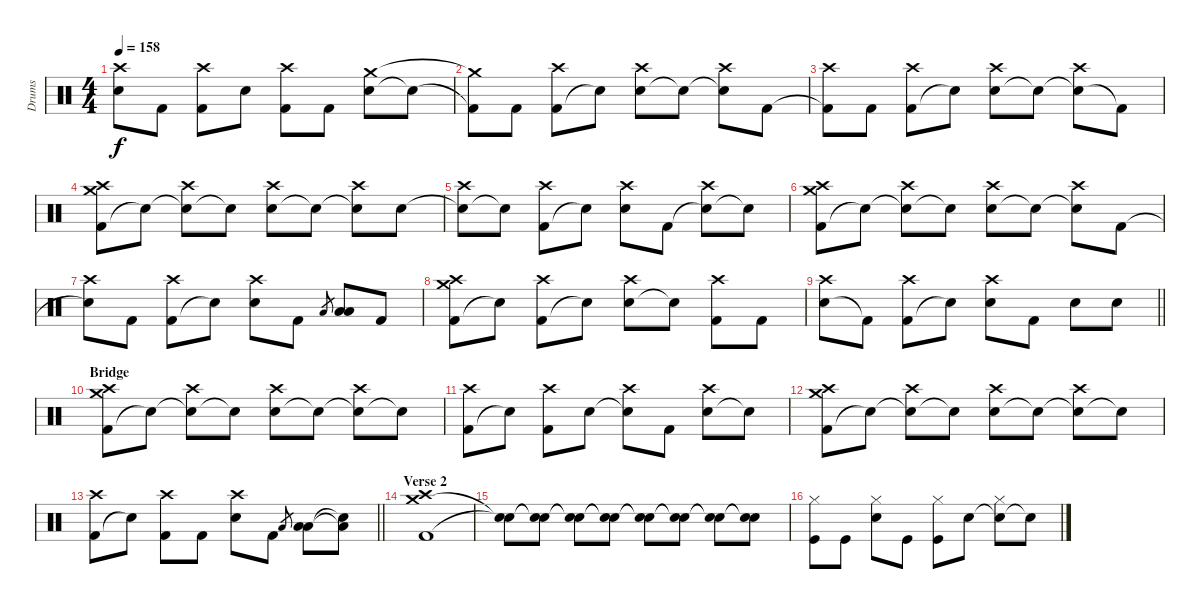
\track ("Drums" "Drums") {instrument percussion}
\staff {score}
\articulation defaults
\ts (4 4)
\tempo 158
\clef neutral
\ks c
("Electric Snare (hit)" "Crash high (hit)").8{dy f} "Kick (hit) 2".8 ("Kick (hit) 2" "Crash high (hit)").8 "Electric Snare (hit)".8 ("Kick (hit) 2" "Crash high (hit)").8 "Kick (hit) 2".8 ("Electric Snare (hit)" "Crash medium (hit)").8 "Snare (hit)"{t}.8 |
("Kick (hit) 2"{t} "Crash medium (hit)"{t}).8 "Kick (hit) 2".8 ("Kick (hit) 2" "Crash high (hit)").8 "Snare (hit)"{t}.8 ("Electric Snare (hit)" "Crash high (hit)").8 "Snare (hit)"{t}.8 ("Snare (hit)"{t} "Crash high (hit)").8 "Kick (hit) 2".8 |
("Kick (hit) 2"{t} "Crash high (hit)").8 "Kick (hit) 2".8 ("Kick (hit) 2" "Crash high (hit)").8 "Snare (hit)"{t}.8 ("Electric Snare (hit)" "Crash high (hit)").8 "Snare (hit)"{t}.8 ("Snare (hit)"{t} "Crash high (hit)").8 "Kick (hit) 2"{t}.8 |
("Kick (hit) 2" "Crash medium (hit)" "Crash high (hit)").8 "Snare (hit)"{t}.8 ("Snare (hit)"{t} "Crash high (hit)").8 "Snare (hit)"{t}.8 ("Electric Snare (hit)" "Crash high (hit)").8 "Snare (hit)"{t}.8 ("Snare (hit)"{t} "Crash high (hit)").8 "Electric Snare (hit)".8 |
("Snare (hit)"{t} "Crash high (hit)").8 "Snare (hit)"{t}.8 ("Kick (hit) 2" "Crash high (hit)").8 "Snare (hit)"{t}.8 ("Electric Snare (hit)" "Crash high (hit)").8 "Kick (hit) 2".8 ("Snare (hit)"{t} "Crash high (hit)").8 "Snare (hit)"{t}.8 |
("Kick (hit) 2" "Crash medium (hit)" "Crash high (hit)").8 "Snare (hit)"{t}.8 ("Snare (hit)"{t} "Crash high (hit)").8 "Snare (hit)"{t}.8 ("Electric Snare (hit)" "Crash high (hit)").8 "Snare (hit)"{t}.8 ("Snare (hit)"{t} "Crash high (hit)").8 "Kick (hit) 2".8 |
("Snare (hit)"{t} "Crash high (hit)").8 "Kick (hit) 2".8 ("Kick (hit) 2" "Crash high (hit)").8 "Snare (hit)"{t}.8 ("Electric Snare (hit)" "Crash high (hit)").8 "Kick (hit) 2".8 "Low Tom (hit)".8{gr} ("Low Tom (hit)" "Low Floor Tom (hit)").8 "Kick (hit) 2".8 |
("Kick (hit) 2" "Crash medium (hit)" "Crash high (hit)").8 "Snare (hit)"{t}.8 ("Kick (hit) 2" "Crash high (hit)").8 "Snare (hit)"{t}.8 ("Electric Snare (hit)" "Crash high (hit)").8 "Snare (hit)"{t}.8 ("Kick (hit) 2" "Crash high (hit)").8 "Kick (hit) 2".8 |
\barLineRight lightlight
("Electric Snare (hit)" "Crash high (hit)").8 "Kick (hit) 2"{t}.8 ("Kick (hit) 2" "Crash high (hit)").8 "Electric Snare (hit)"{t}.8 ("Electric Snare (hit)" "Crash high (hit)").8 "Kick (hit) 2".8 "Electric Snare (hit)".8 "Electric Snare (hit)".8 |
\section ("" "Bridge")
("Kick (hit) 2" "Crash medium (hit)" "Crash high (hit)").8 "Snare (hit)"{t}.8 ("Snare (hit)"{t} "Crash high (hit)").8 "Snare (hit)"{t}.8 ("Electric Snare (hit)" "Crash high (hit)").8 "Snare (hit)"{t}.8 ("Snare (hit)"{t} "Crash high (hit)").8 "Snare (hit)"{t}.8 |
("Kick (hit) 2" "Crash high (hit)").8 "Snare (hit)"{t}.8 ("Kick (hit) 2" "Crash high (hit)").8 "Electric Snare (hit)".8 ("Snare (hit)"{t} "Crash high (hit)").8 "Kick (hit) 2".8 ("Electric Snare (hit)" "Crash high (hit)").8 "Snare (hit)"{t}.8 |
("Kick (hit) 2" "Crash medium (hit)" "Crash high (hit)").8 "Snare (hit)"{t}.8 ("Snare (hit)"{t} "Crash high (hit)").8 "Snare (hit)"{t}.8 ("Electric Snare (hit)" "Crash high (hit)").8 "Snare (hit)"{t}.8 ("Snare (hit)"{t} "Crash high (hit)").8 "Snare (hit)"{t}.8 |
\barLineRight lightlight
("Kick (hit) 2" "Crash high (hit)").8 "Snare (hit)"{t}.8 ("Kick (hit) 2" "Crash high (hit)").8 "Kick (hit) 2".8 ("Electric Snare (hit)" "Crash high (hit)").8 "Kick (hit) 2".8 "Low Tom (hit)".8{gr} ("Low Tom (hit)" "Low Floor Tom (hit)").8 ("Low Floor Tom (hit)"{t} "Snare (hit)"{t}).8 |
\section ("" "Verse 2")
("Kick (hit) 2" "Crash medium (hit)" "Crash high (hit)").1 |
("Snare (hit)"{t} "Snare (hit)"{t}).8 ("Snare (hit)"{t} "Snare (hit)"{t}).8 ("Snare (hit)"{t} "Snare (hit)"{t}).8 ("Snare (hit)"{t} "Snare (hit)"{t}).8 ("Snare (hit)"{t} "Snare (hit)"{t}).8 ("Snare (hit)"{t} "Snare (hit)"{t}).8 ("Snare (hit)"{t} "Snare (hit)"{t}).8 ("Snare (hit)"{t} "Snare (hit)"{t}).8{volume 0} |
("Kick (hit)" "Hi-Hat (closed)").8{volume 13} "Kick (hit)".8 ("Snare (hit) 2" "Hi-Hat (closed)").8 "Kick (hit)".8 ("Kick (hit)" "Hi-Hat (closed)").8 "Snare (hit) 2".8 ("Snare (hit)"{t} "Hi-Hat (closed)").8 "Snare (hit)"{t}.8
